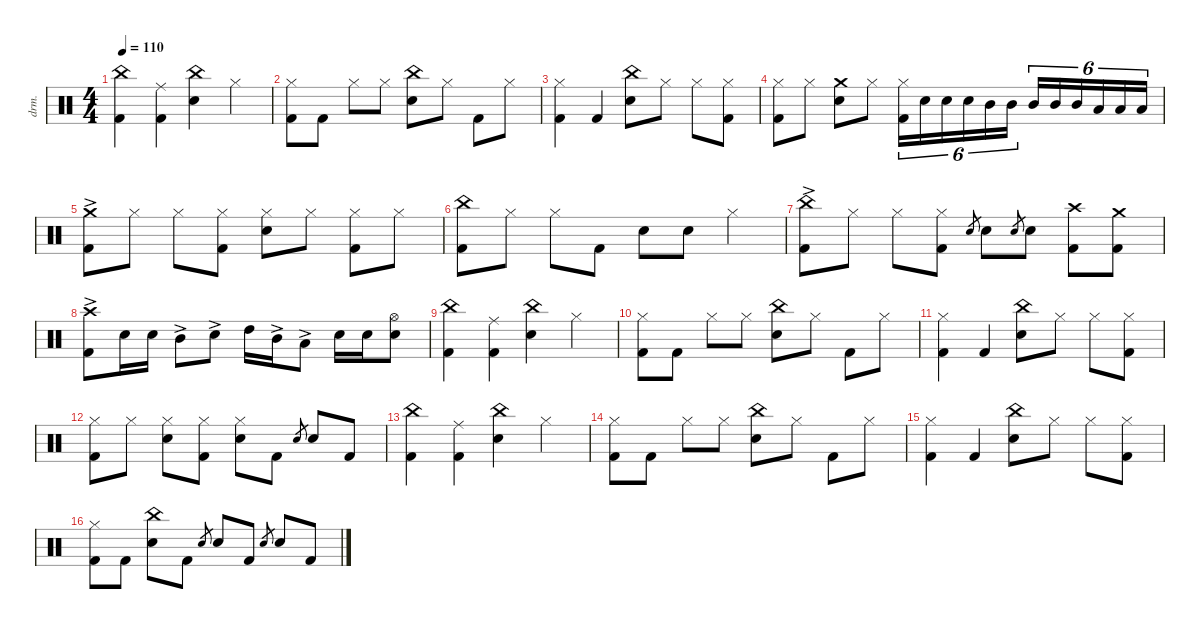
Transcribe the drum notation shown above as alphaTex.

\defaultSystemsLayout 4
\hideDynamics
\bracketExtendMode nobrackets
\otherSystemsTrackNameOrientation horizontal
\track ("Drums" "drm.") {instrument percussion}
\staff {score}
\articulation defaults
\ts (4 4)
\tempo 110
\clef neutral
\ks aminor
("Kick (hit) 2" "China (hit)").4{dy f beam Down} ("Ride (middle)" "Kick (hit) 2").4{beam Down} ("Snare (hit) 2" "China (hit)").4{beam Down} "Hi-Hat (closed)".4{beam Down} |
("Hi-Hat (closed)" "Kick (hit) 2").8{beam Down} "Kick (hit) 2".8{beam Down} "Hi-Hat (closed)".8{beam Down} "Hi-Hat (closed)".8{beam Down} ("Snare (hit) 2" "China (hit)").8{beam Down} "Hi-Hat (closed)".8{beam Down} "Kick (hit) 2".8{beam Down} "Hi-Hat (closed)".8{beam Down} |
("Kick (hit) 2" "Hi-Hat (closed)").4{beam Down} "Kick (hit) 2".4{beam Up} ("Snare (hit) 2" "China (hit)").8{beam Down} "Hi-Hat (closed)".8{beam Down} "Hi-Hat (closed)".8{beam Down} ("Hi-Hat (closed)" "Kick (hit) 2").8{beam Down} |
("Kick (hit) 2" "Hi-Hat (closed)").8{beam Down} "Hi-Hat (closed)".8{beam Down} ("Snare (hit) 2" "Crash medium (hit)").8{beam Down} "Hi-Hat (closed)".8{beam Down} ("Kick (hit) 2" "Hi-Hat (closed)").16{tu (6 4) beam Down} "Snare (hit) 2".16{tu (6 4) beam Down} "Snare (hit) 2".16{tu (6 4) beam Down} "Snare (hit) 2".16{tu (6 4) beam Down} "Mid Tom (hit)".16{tu (6 4) beam Down} "Mid Tom (hit)".16{tu (6 4) beam Down} "Mid Tom (hit)".16{tu (6 4) beam Up} "Mid Tom (hit)".16{tu (6 4) beam Up} "Mid Tom (hit)".16{tu (6 4) beam Up} "Low Tom (hit)".16{tu (6 4) beam Up} "Low Tom (hit)".16{tu (6 4) beam Up} "Low Tom (hit)".16{tu (6 4) beam Up} |
("Kick (hit) 2"{ac} "Crash medium (hit)"{ac}).8{beam Down} "Hi-Hat (closed)".8{beam Down} "Hi-Hat (closed)".8{beam Down} ("Hi-Hat (closed)" "Kick (hit) 2").8{beam Down} ("Snare (hit) 2" "Hi-Hat (closed)").8{beam Down} "Hi-Hat (closed)".8{beam Down} ("Hi-Hat (closed)" "Kick (hit) 2").8{beam Down} "Hi-Hat (closed)".8{beam Down} |
("Kick (hit) 2" "China (hit)").8{beam Down} "Hi-Hat (closed)".8{beam Down} "Hi-Hat (closed)".8{beam Down} "Kick (hit) 2".8{beam Down} "Snare (hit) 2".8{beam Down} "Snare (hit) 2".8{beam Down} "Hi-Hat (closed)".4{beam Down} |
("Kick (hit) 2"{ac} "China (hit)"{ac}).8{beam Down} "Hi-Hat (closed)".8{beam Down} "Hi-Hat (closed)".8{beam Down} ("Hi-Hat (closed)" "Kick (hit) 2").8{beam Down} "Snare (hit) 2".8{gr beam Up} "Snare (hit) 2".8{beam Down} "Snare (hit) 2".8{gr beam Up} "Snare (hit) 2".8{beam Down} ("Kick (hit) 2" "Crash high (hit)").8{beam Down} ("Kick (hit) 2" "Crash medium (hit)").8{beam Down} |
("Kick (hit) 2" "Crash high (hit)"{ac}).8{beam Down} "Snare (hit) 2".16{beam Down} "Snare (hit) 2".16{beam Down} "Mid Tom (hit)"{ac}.8{beam Down} "Snare (hit) 2"{ac}.8{beam Down} "High Tom (hit)".16{beam Down} "Mid Tom (hit)"{ac}.16{beam Down} "Low Tom (hit)"{ac}.8{beam Down} "Snare (hit) 2".16{beam Down} "Snare (hit) 2".16{beam Down} ("Snare (hit) 2" "Hi-Hat (open)").8{beam Down} |
("Kick (hit) 2" "China (hit)").4{beam Down} ("Ride (middle)" "Kick (hit) 2").4{beam Down} ("Snare (hit) 2" "China (hit)").4{beam Down} "Hi-Hat (closed)".4{beam Down} |
("Hi-Hat (closed)" "Kick (hit) 2").8{beam Down} "Kick (hit) 2".8{beam Down} "Hi-Hat (closed)".8{beam Down} "Hi-Hat (closed)".8{beam Down} ("Snare (hit) 2" "China (hit)").8{beam Down} "Hi-Hat (closed)".8{beam Down} "Kick (hit) 2".8{beam Down} "Hi-Hat (closed)".8{beam Down} |
("Kick (hit) 2" "Hi-Hat (closed)").4{beam Down} "Kick (hit) 2".4{beam Up} ("Snare (hit) 2" "China (hit)").8{beam Down} "Hi-Hat (closed)".8{beam Down} "Hi-Hat (closed)".8{beam Down} ("Hi-Hat (closed)" "Kick (hit) 2").8{beam Down} |
("Kick (hit) 2" "Hi-Hat (closed)").8{beam Down} "Hi-Hat (closed)".8{beam Down} ("Hi-Hat (closed)" "Snare (hit) 2").8{beam Down} ("Hi-Hat (closed)" "Kick (hit) 2").8{beam Down} ("Hi-Hat (closed)" "Snare (hit) 2").8{beam Down} "Kick (hit) 2".8{beam Down} "Snare (hit) 2".8{gr beam Up} "Snare (hit) 2".8{beam Up} "Kick (hit) 2".8{beam Up} |
("Kick (hit) 2" "China (hit)").4{beam Down} ("Ride (middle)" "Kick (hit) 2").4{beam Down} ("Snare (hit) 2" "China (hit)").4{beam Down} "Hi-Hat (closed)".4{beam Down} |
("Hi-Hat (closed)" "Kick (hit) 2").8{beam Down} "Kick (hit) 2".8{beam Down} "Hi-Hat (closed)".8{beam Down} "Hi-Hat (closed)".8{beam Down} ("Snare (hit) 2" "China (hit)").8{beam Down} "Hi-Hat (closed)".8{beam Down} "Kick (hit) 2".8{beam Down} "Hi-Hat (closed)".8{beam Down} |
("Kick (hit) 2" "Hi-Hat (closed)").4{beam Down} "Kick (hit) 2".4{beam Up} ("Snare (hit) 2" "China (hit)").8{beam Down} "Hi-Hat (closed)".8{beam Down} "Hi-Hat (closed)".8{beam Down} ("Hi-Hat (closed)" "Kick (hit) 2").8{beam Down} |
("Hi-Hat (closed)" "Kick (hit) 2").8{beam Down} "Kick (hit) 2".8{beam Down} ("Snare (hit) 2" "China (hit)").8{beam Down} "Kick (hit) 2".8{beam Down} "Snare (hit) 2".8{gr beam Up} "Snare (hit) 2".8{beam Up} "Kick (hit) 2".8{beam Up} "Snare (hit) 2".8{gr beam Up} "Snare (hit) 2".8{beam Up} "Kick (hit) 2".8{beam Up}
